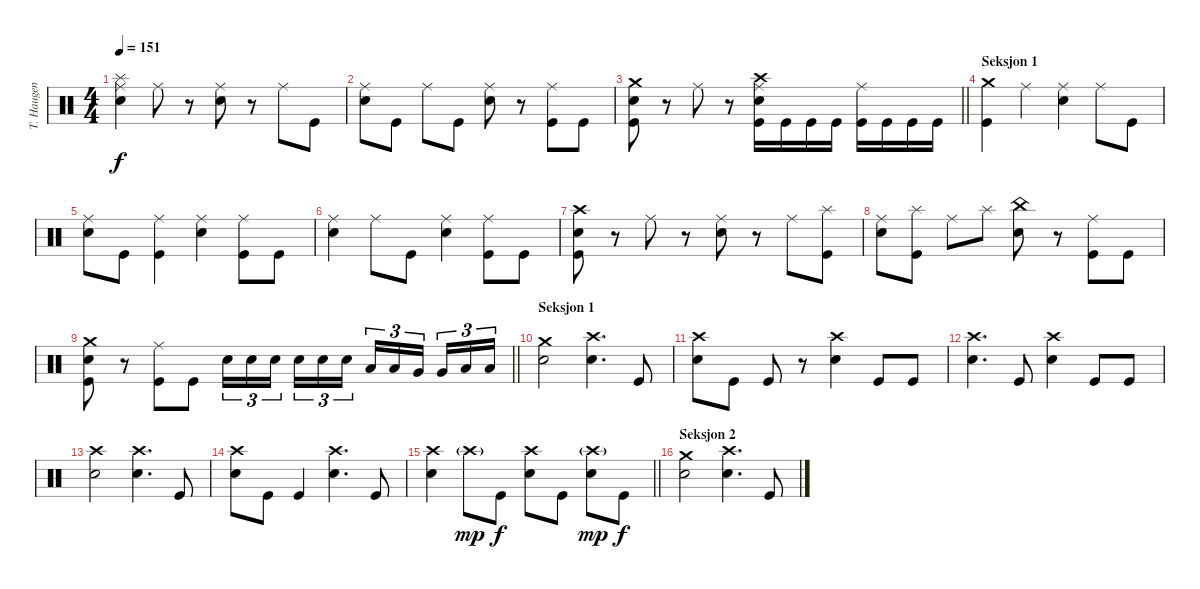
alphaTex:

\track ("T. Haugen" "T. Haugen") {instrument percussion}
\staff {score}
\articulation defaults
\ts (4 4)
\tempo 151
\clef neutral
\ks c
("Splash (hit)" "Ride (middle)" "Electric Snare (hit)").4{dy f} "Ride (middle)".8 r.8 ("Ride (middle)" "Electric Snare (hit)").8 r.8 "Ride (middle)".8 "Kick (hit)".8 |
("Ride (middle)" "Electric Snare (hit)").8 "Kick (hit)".8 "Ride (middle)".8 "Kick (hit)".8 ("Ride (middle)" "Electric Snare (hit)").8 r.8 ("Ride (middle)" "Kick (hit)").8 "Kick (hit)".8 |
\barLineRight lightlight
("Crash medium (hit)" "Electric Snare (hit)" "Kick (hit)").8 r.8 "Ride (middle)".8 r.8 ("Crash high (hit)" "Ride (middle)" "Electric Snare (hit)" "Kick (hit)").16 "Kick (hit)".16 "Kick (hit)".16 "Kick (hit)".16 ("Ride (middle)" "Kick (hit)").16 "Kick (hit)".16 "Kick (hit)".16 "Kick (hit)".16 |
\section ("" "Seksjon 1")
("Crash medium (hit)" "Kick (hit)").4 "Ride (middle)".4 ("Ride (middle)" "Electric Snare (hit)").4 "Ride (middle)".8 "Kick (hit)".8 |
("Ride (middle)" "Electric Snare (hit)").8 "Kick (hit)".8 ("Ride (middle)" "Kick (hit)").4 ("Ride (middle)" "Electric Snare (hit)").4 ("Ride (middle)" "Kick (hit)").8 "Kick (hit)".8 |
("Ride (middle)" "Electric Snare (hit)").4 "Ride (middle)".8 "Kick (hit)".8 ("Ride (middle)" "Electric Snare (hit)").4 ("Ride (middle)" "Kick (hit)").8 "Kick (hit)".8 |
("Crash high (hit)" "Electric Snare (hit)" "Kick (hit)").8 r.8 "Ride (middle)".8 r.8 ("Ride (middle)" "Electric Snare (hit)").8 r.8 "Ride (middle)".8 ("Splash (hit)" "Kick (hit)").8 |
("Ride (middle)" "Electric Snare (hit)").8 ("Splash (hit)" "Kick (hit)").8 "Ride (middle)".8 "Splash (hit)".8 ("China (hit)" "Electric Snare (hit)").8 r.8 ("Ride (middle)" "Kick (hit)").8 "Kick (hit)".8 |
\barLineRight lightlight
("Crash medium (hit)" "Electric Snare (hit)" "Kick (hit)").8 r.8 ("Ride (middle)" "Kick (hit)").8 "Kick (hit)".8 "Electric Snare (hit)".16{tu (3 2)} "Electric Snare (hit)".16{tu (3 2)} "Electric Snare (hit)".16{tu (3 2) beam splitsecondary} "Electric Snare (hit)".16{tu (3 2)} "Electric Snare (hit)".16{tu (3 2)} "Electric Snare (hit)".16{tu (3 2)} "Low Tom (hit)".16{tu (3 2)} "Low Tom (hit)".16{tu (3 2)} "Very Low Tom (hit)".16{tu (3 2) beam splitsecondary} "Very Low Tom (hit)".16{tu (3 2)} "Low Floor Tom (hit)".16{tu (3 2)} "Low Floor Tom (hit)".16{tu (3 2)} |
\section ("" "Seksjon 1")
("Crash medium (hit)" "Electric Snare (hit)").2 ("Crash high (hit)" "Electric Snare (hit)").4{d} "Kick (hit)".8 |
("Crash high (hit)" "Electric Snare (hit)").8 "Kick (hit)".8 "Kick (hit)".8 r.8 ("Crash high (hit)" "Electric Snare (hit)").4 "Kick (hit)".8 "Kick (hit)".8 |
("Crash high (hit)" "Electric Snare (hit)").4{d} "Kick (hit)".8 ("Crash high (hit)" "Electric Snare (hit)").4 "Kick (hit)".8 "Kick (hit)".8 |
("Crash high (hit)" "Electric Snare (hit)").2 ("Crash high (hit)" "Electric Snare (hit)").4{d} "Kick (hit)".8 |
("Crash high (hit)" "Electric Snare (hit)").8 "Kick (hit)".8 "Kick (hit)".4 ("Crash high (hit)" "Electric Snare (hit)").4{d} "Kick (hit)".8 |
\barLineRight lightlight
("Crash high (hit)" "Electric Snare (hit)").4 "Crash high (hit)"{g}.8{dy mp} "Kick (hit)".8{dy f} ("Crash high (hit)" "Electric Snare (hit)").8 "Kick (hit)".8 ("Crash high (hit)"{g} "Electric Snare (hit)").8{dy mp} "Kick (hit)".8{dy f} |
\section ("" "Seksjon 2")
("Crash medium (hit)" "Electric Snare (hit)").2 ("Crash high (hit)" "Electric Snare (hit)").4{d} "Kick (hit)".8
